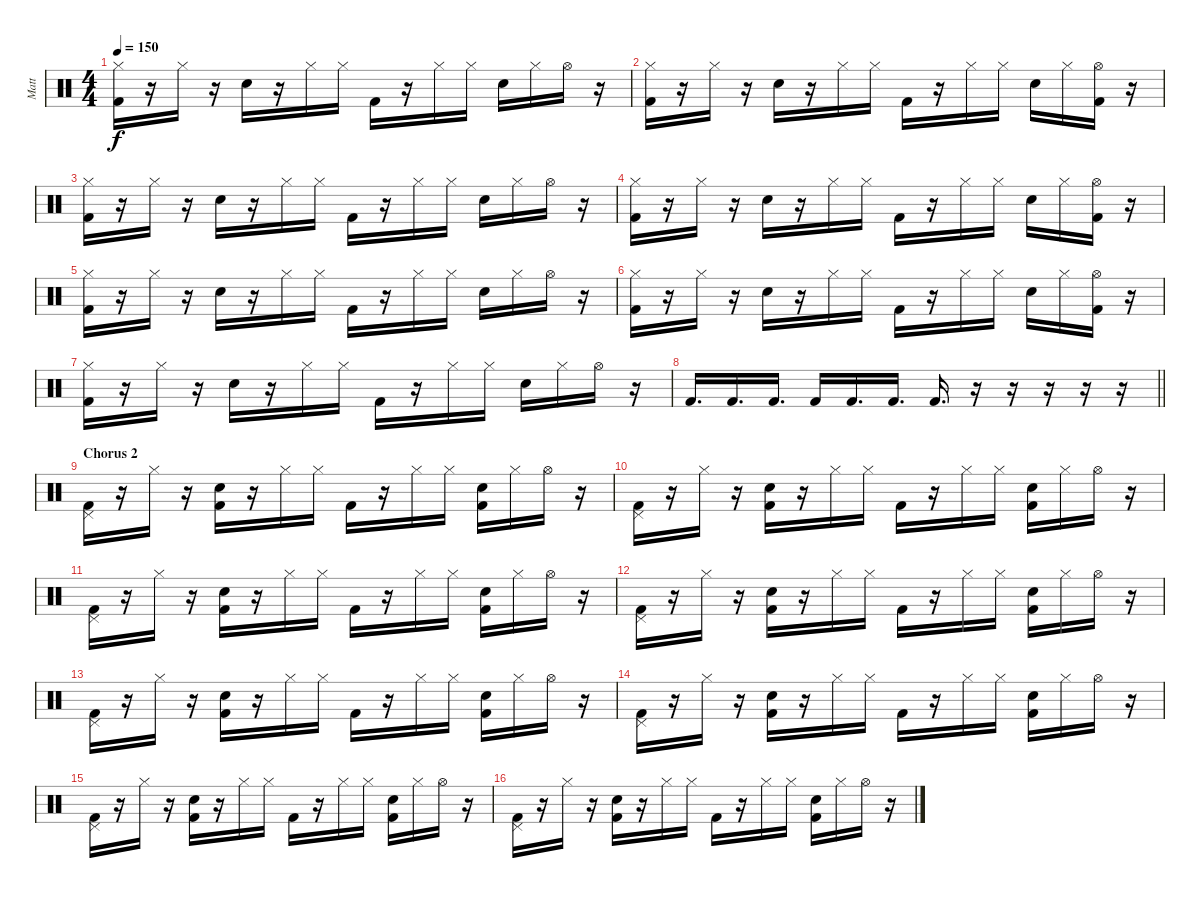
\track ("Matt" "Matt") {instrument percussion}
\staff {score}
\articulation defaults
\ts (4 4)
\tempo 150
\clef neutral
\ks c
("Hi-Hat (closed)" "Kick (hit) 2").16{dy f} r.16 "Hi-Hat (closed)".16 r.16 "Snare (hit) 2".16 r.16 "Hi-Hat (closed)".16 "Hi-Hat (closed)".16 "Kick (hit) 2".16 r.16 "Hi-Hat (closed)".16 "Hi-Hat (closed)".16 "Snare (hit) 2".16 "Hi-Hat (closed)".16 "Hi-Hat (open)".16 r.16 |
("Hi-Hat (closed)" "Kick (hit) 2").16 r.16 "Hi-Hat (closed)".16 r.16 "Snare (hit) 2".16 r.16 "Hi-Hat (closed)".16 "Hi-Hat (closed)".16 "Kick (hit) 2".16 r.16 "Hi-Hat (closed)".16 "Hi-Hat (closed)".16 "Snare (hit) 2".16 "Hi-Hat (closed)".16 ("Hi-Hat (open)" "Kick (hit) 2").16 r.16 |
("Hi-Hat (closed)" "Kick (hit) 2").16 r.16 "Hi-Hat (closed)".16 r.16 "Snare (hit) 2".16 r.16 "Hi-Hat (closed)".16 "Hi-Hat (closed)".16 "Kick (hit) 2".16 r.16 "Hi-Hat (closed)".16 "Hi-Hat (closed)".16 "Snare (hit) 2".16 "Hi-Hat (closed)".16 "Hi-Hat (open)".16 r.16 |
("Hi-Hat (closed)" "Kick (hit) 2").16 r.16 "Hi-Hat (closed)".16 r.16 "Snare (hit) 2".16 r.16 "Hi-Hat (closed)".16 "Hi-Hat (closed)".16 "Kick (hit) 2".16 r.16 "Hi-Hat (closed)".16 "Hi-Hat (closed)".16 "Snare (hit) 2".16 "Hi-Hat (closed)".16 ("Hi-Hat (open)" "Kick (hit) 2").16 r.16 |
("Hi-Hat (closed)" "Kick (hit) 2").16 r.16 "Hi-Hat (closed)".16 r.16 "Snare (hit) 2".16 r.16 "Hi-Hat (closed)".16 "Hi-Hat (closed)".16 "Kick (hit) 2".16 r.16 "Hi-Hat (closed)".16 "Hi-Hat (closed)".16 "Snare (hit) 2".16 "Hi-Hat (closed)".16 "Hi-Hat (open)".16 r.16 |
("Hi-Hat (closed)" "Kick (hit) 2").16 r.16 "Hi-Hat (closed)".16 r.16 "Snare (hit) 2".16 r.16 "Hi-Hat (closed)".16 "Hi-Hat (closed)".16 "Kick (hit) 2".16 r.16 "Hi-Hat (closed)".16 "Hi-Hat (closed)".16 "Snare (hit) 2".16 "Hi-Hat (closed)".16 ("Hi-Hat (open)" "Kick (hit) 2").16 r.16 |
("Hi-Hat (closed)" "Kick (hit) 2").16 r.16 "Hi-Hat (closed)".16 r.16 "Snare (hit) 2".16 r.16 "Hi-Hat (closed)".16 "Hi-Hat (closed)".16 "Kick (hit) 2".16 r.16 "Hi-Hat (closed)".16 "Hi-Hat (closed)".16 "Snare (hit) 2".16 "Hi-Hat (closed)".16 "Hi-Hat (open)".16 r.16 |
\barLineRight lightlight "Kick (hit) 2".16{d} "Kick (hit) 2".16{d} "Kick (hit) 2".16{d} "Kick (hit) 2".16 "Kick (hit) 2".16{d} "Kick (hit) 2".16{d} "Kick (hit) 2".16{d}
r.16 r.16 r.16 r.16 r.16 |
\section ("" "Chorus 2")
("Pedal Hi-Hat (hit)" "Kick (hit) 2").16 r.16 "Hi-Hat (closed)".16 r.16 ("Snare (hit) 2" "Kick (hit) 2").16 r.16 "Hi-Hat (closed)".16 "Hi-Hat (closed)".16 "Kick (hit) 2".16 r.16 "Hi-Hat (closed)".16 "Hi-Hat (closed)".16 ("Snare (hit) 2" "Kick (hit) 2").16 "Hi-Hat (closed)".16 "Hi-Hat (open)".16 r.16 |
("Pedal Hi-Hat (hit)" "Kick (hit) 2").16 r.16 "Hi-Hat (closed)".16 r.16 ("Snare (hit) 2" "Kick (hit) 2").16 r.16 "Hi-Hat (closed)".16 "Hi-Hat (closed)".16 "Kick (hit) 2".16 r.16 "Hi-Hat (closed)".16 "Hi-Hat (closed)".16 ("Snare (hit) 2" "Kick (hit) 2").16 "Hi-Hat (closed)".16 "Hi-Hat (open)".16 r.16 |
("Pedal Hi-Hat (hit)" "Kick (hit) 2").16 r.16 "Hi-Hat (closed)".16 r.16 ("Snare (hit) 2" "Kick (hit) 2").16 r.16 "Hi-Hat (closed)".16 "Hi-Hat (closed)".16 "Kick (hit) 2".16 r.16 "Hi-Hat (closed)".16 "Hi-Hat (closed)".16 ("Snare (hit) 2" "Kick (hit) 2").16 "Hi-Hat (closed)".16 "Hi-Hat (open)".16 r.16 |
("Pedal Hi-Hat (hit)" "Kick (hit) 2").16 r.16 "Hi-Hat (closed)".16 r.16 ("Snare (hit) 2" "Kick (hit) 2").16 r.16 "Hi-Hat (closed)".16 "Hi-Hat (closed)".16 "Kick (hit) 2".16 r.16 "Hi-Hat (closed)".16 "Hi-Hat (closed)".16 ("Snare (hit) 2" "Kick (hit) 2").16 "Hi-Hat (closed)".16 "Hi-Hat (open)".16 r.16 |
("Pedal Hi-Hat (hit)" "Kick (hit) 2").16 r.16 "Hi-Hat (closed)".16 r.16 ("Snare (hit) 2" "Kick (hit) 2").16 r.16 "Hi-Hat (closed)".16 "Hi-Hat (closed)".16 "Kick (hit) 2".16 r.16 "Hi-Hat (closed)".16 "Hi-Hat (closed)".16 ("Snare (hit) 2" "Kick (hit) 2").16 "Hi-Hat (closed)".16 "Hi-Hat (open)".16 r.16 |
("Pedal Hi-Hat (hit)" "Kick (hit) 2").16 r.16 "Hi-Hat (closed)".16 r.16 ("Snare (hit) 2" "Kick (hit) 2").16 r.16 "Hi-Hat (closed)".16 "Hi-Hat (closed)".16 "Kick (hit) 2".16 r.16 "Hi-Hat (closed)".16 "Hi-Hat (closed)".16 ("Snare (hit) 2" "Kick (hit) 2").16 "Hi-Hat (closed)".16 "Hi-Hat (open)".16 r.16 |
("Pedal Hi-Hat (hit)" "Kick (hit) 2").16 r.16 "Hi-Hat (closed)".16 r.16 ("Snare (hit) 2" "Kick (hit) 2").16 r.16 "Hi-Hat (closed)".16 "Hi-Hat (closed)".16 "Kick (hit) 2".16 r.16 "Hi-Hat (closed)".16 "Hi-Hat (closed)".16 ("Snare (hit) 2" "Kick (hit) 2").16 "Hi-Hat (closed)".16 "Hi-Hat (open)".16 r.16 |
("Pedal Hi-Hat (hit)" "Kick (hit) 2").16 r.16 "Hi-Hat (closed)".16 r.16 ("Snare (hit) 2" "Kick (hit) 2").16 r.16 "Hi-Hat (closed)".16 "Hi-Hat (closed)".16 "Kick (hit) 2".16 r.16 "Hi-Hat (closed)".16 "Hi-Hat (closed)".16 ("Snare (hit) 2" "Kick (hit) 2").16 "Hi-Hat (closed)".16 "Hi-Hat (open)".16 r.16
